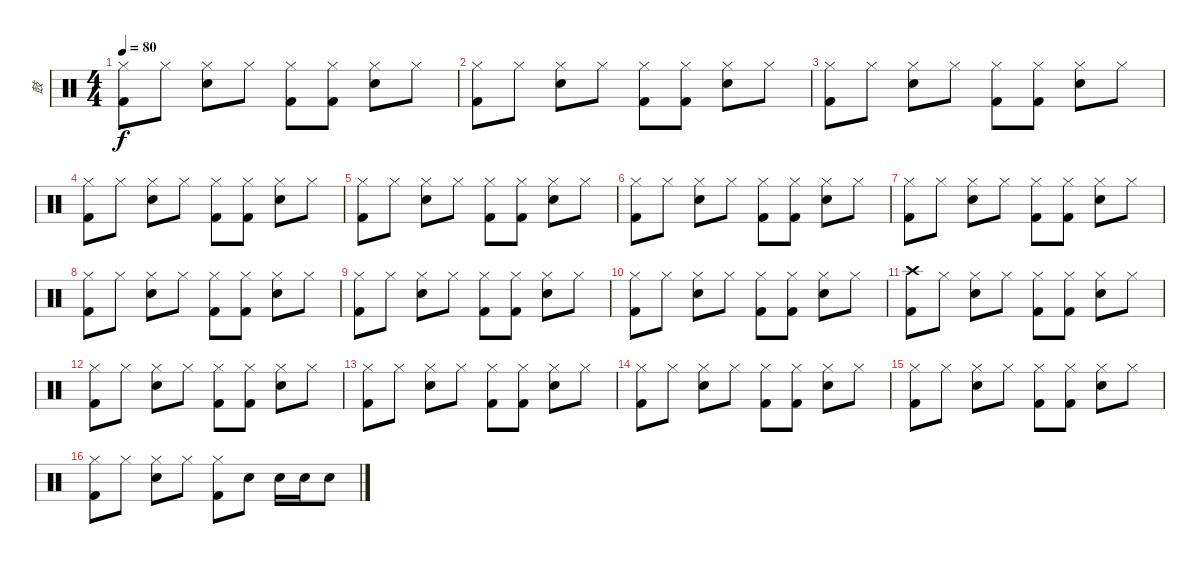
\track ("鼓" "鼓") {instrument percussion}
\staff {score}
\articulation defaults
\ts (4 4)
\tempo 80
\clef neutral
\ks c
("Hi-Hat (closed)" "Kick (hit) 2").8{dy f} "Hi-Hat (closed)".8 ("Hi-Hat (closed)" "Electric Snare (hit)").8 "Hi-Hat (closed)".8 ("Hi-Hat (closed)" "Kick (hit) 2").8 ("Hi-Hat (closed)" "Kick (hit) 2").8 ("Hi-Hat (closed)" "Electric Snare (hit)").8 "Hi-Hat (closed)".8 |
("Hi-Hat (closed)" "Kick (hit) 2").8 "Hi-Hat (closed)".8 ("Hi-Hat (closed)" "Electric Snare (hit)").8 "Hi-Hat (closed)".8 ("Hi-Hat (closed)" "Kick (hit) 2").8 ("Hi-Hat (closed)" "Kick (hit) 2").8 ("Hi-Hat (closed)" "Electric Snare (hit)").8 "Hi-Hat (closed)".8 |
("Hi-Hat (closed)" "Kick (hit) 2").8 "Hi-Hat (closed)".8 ("Hi-Hat (closed)" "Electric Snare (hit)").8 "Hi-Hat (closed)".8 ("Hi-Hat (closed)" "Kick (hit) 2").8 ("Hi-Hat (closed)" "Kick (hit) 2").8 ("Hi-Hat (closed)" "Electric Snare (hit)").8 "Hi-Hat (closed)".8 |
("Hi-Hat (closed)" "Kick (hit) 2").8 "Hi-Hat (closed)".8 ("Hi-Hat (closed)" "Electric Snare (hit)").8 "Hi-Hat (closed)".8 ("Hi-Hat (closed)" "Kick (hit) 2").8 ("Hi-Hat (closed)" "Kick (hit) 2").8 ("Hi-Hat (closed)" "Electric Snare (hit)").8 "Hi-Hat (closed)".8 |
("Hi-Hat (closed)" "Kick (hit) 2").8 "Hi-Hat (closed)".8 ("Hi-Hat (closed)" "Electric Snare (hit)").8 "Hi-Hat (closed)".8 ("Hi-Hat (closed)" "Kick (hit) 2").8 ("Hi-Hat (closed)" "Kick (hit) 2").8 ("Hi-Hat (closed)" "Electric Snare (hit)").8 "Hi-Hat (closed)".8 |
("Hi-Hat (closed)" "Kick (hit) 2").8 "Hi-Hat (closed)".8 ("Hi-Hat (closed)" "Electric Snare (hit)").8 "Hi-Hat (closed)".8 ("Hi-Hat (closed)" "Kick (hit) 2").8 ("Hi-Hat (closed)" "Kick (hit) 2").8 ("Hi-Hat (closed)" "Electric Snare (hit)").8 "Hi-Hat (closed)".8 |
("Hi-Hat (closed)" "Kick (hit) 2").8 "Hi-Hat (closed)".8 ("Hi-Hat (closed)" "Electric Snare (hit)").8 "Hi-Hat (closed)".8 ("Hi-Hat (closed)" "Kick (hit) 2").8 ("Hi-Hat (closed)" "Kick (hit) 2").8 ("Hi-Hat (closed)" "Electric Snare (hit)").8 "Hi-Hat (closed)".8 |
("Hi-Hat (closed)" "Kick (hit) 2").8 "Hi-Hat (closed)".8 ("Hi-Hat (closed)" "Electric Snare (hit)").8 "Hi-Hat (closed)".8 ("Hi-Hat (closed)" "Kick (hit) 2").8 ("Hi-Hat (closed)" "Kick (hit) 2").8 ("Hi-Hat (closed)" "Electric Snare (hit)").8 "Hi-Hat (closed)".8 |
("Hi-Hat (closed)" "Kick (hit) 2").8 "Hi-Hat (closed)".8 ("Hi-Hat (closed)" "Electric Snare (hit)").8 "Hi-Hat (closed)".8 ("Hi-Hat (closed)" "Kick (hit) 2").8 ("Hi-Hat (closed)" "Kick (hit) 2").8 ("Hi-Hat (closed)" "Electric Snare (hit)").8 "Hi-Hat (closed)".8 |
("Hi-Hat (closed)" "Kick (hit) 2").8 "Hi-Hat (closed)".8 ("Hi-Hat (closed)" "Electric Snare (hit)").8 "Hi-Hat (closed)".8 ("Hi-Hat (closed)" "Kick (hit) 2").8 ("Hi-Hat (closed)" "Kick (hit) 2").8 ("Hi-Hat (closed)" "Electric Snare (hit)").8 "Hi-Hat (closed)".8 |
("Crash high (hit)" "Kick (hit) 2").8 "Hi-Hat (closed)".8 ("Hi-Hat (closed)" "Electric Snare (hit)").8 "Hi-Hat (closed)".8 ("Hi-Hat (closed)" "Kick (hit) 2").8 ("Hi-Hat (closed)" "Kick (hit) 2").8 ("Hi-Hat (closed)" "Electric Snare (hit)").8 "Hi-Hat (closed)".8 |
("Hi-Hat (closed)" "Kick (hit) 2").8 "Hi-Hat (closed)".8 ("Hi-Hat (closed)" "Electric Snare (hit)").8 "Hi-Hat (closed)".8 ("Hi-Hat (closed)" "Kick (hit) 2").8 ("Hi-Hat (closed)" "Kick (hit) 2").8 ("Hi-Hat (closed)" "Electric Snare (hit)").8 "Hi-Hat (closed)".8 |
("Hi-Hat (closed)" "Kick (hit) 2").8 "Hi-Hat (closed)".8 ("Hi-Hat (closed)" "Electric Snare (hit)").8 "Hi-Hat (closed)".8 ("Hi-Hat (closed)" "Kick (hit) 2").8 ("Hi-Hat (closed)" "Kick (hit) 2").8 ("Hi-Hat (closed)" "Electric Snare (hit)").8 "Hi-Hat (closed)".8 |
("Hi-Hat (closed)" "Kick (hit) 2").8 "Hi-Hat (closed)".8 ("Hi-Hat (closed)" "Electric Snare (hit)").8 "Hi-Hat (closed)".8 ("Hi-Hat (closed)" "Kick (hit) 2").8 ("Hi-Hat (closed)" "Kick (hit) 2").8 ("Hi-Hat (closed)" "Electric Snare (hit)").8 "Hi-Hat (closed)".8 |
("Hi-Hat (closed)" "Kick (hit) 2").8 "Hi-Hat (closed)".8 ("Hi-Hat (closed)" "Electric Snare (hit)").8 "Hi-Hat (closed)".8 ("Hi-Hat (closed)" "Kick (hit) 2").8 ("Hi-Hat (closed)" "Kick (hit) 2").8 ("Hi-Hat (closed)" "Electric Snare (hit)").8 "Hi-Hat (closed)".8 |
("Hi-Hat (closed)" "Kick (hit) 2").8 "Hi-Hat (closed)".8 ("Hi-Hat (closed)" "Electric Snare (hit)").8 "Hi-Hat (closed)".8 ("Hi-Hat (closed)" "Kick (hit) 2").8 "Electric Snare (hit)".8 "Electric Snare (hit)".16 "Electric Snare (hit)".16 "Electric Snare (hit)".8
